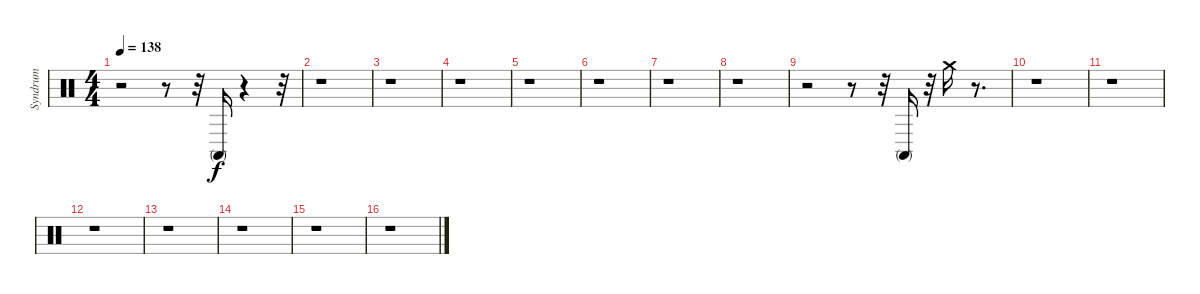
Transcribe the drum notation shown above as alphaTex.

\track ("Syndrum" "Syndrum") {instrument percussion}
\staff {score}
\articulation defaults
\ts (4 4)
\tempo 138
\clef neutral
\ks c
r.2{dy f} r.8 r.32 "Conga high (mute)".16 r.4 r.32 |
r.1 |
r.1 |
r.1 |
r.1 |
r.1 |
r.1 |
r.1 |
r.2 r.8 r.32 "Conga high (mute)".16 r.32 "Crash medium (hit)".16 r.8{d} |
r.1 |
r.1 |
r.1 |
r.1 |
r.1 |
r.1 |
r.1
